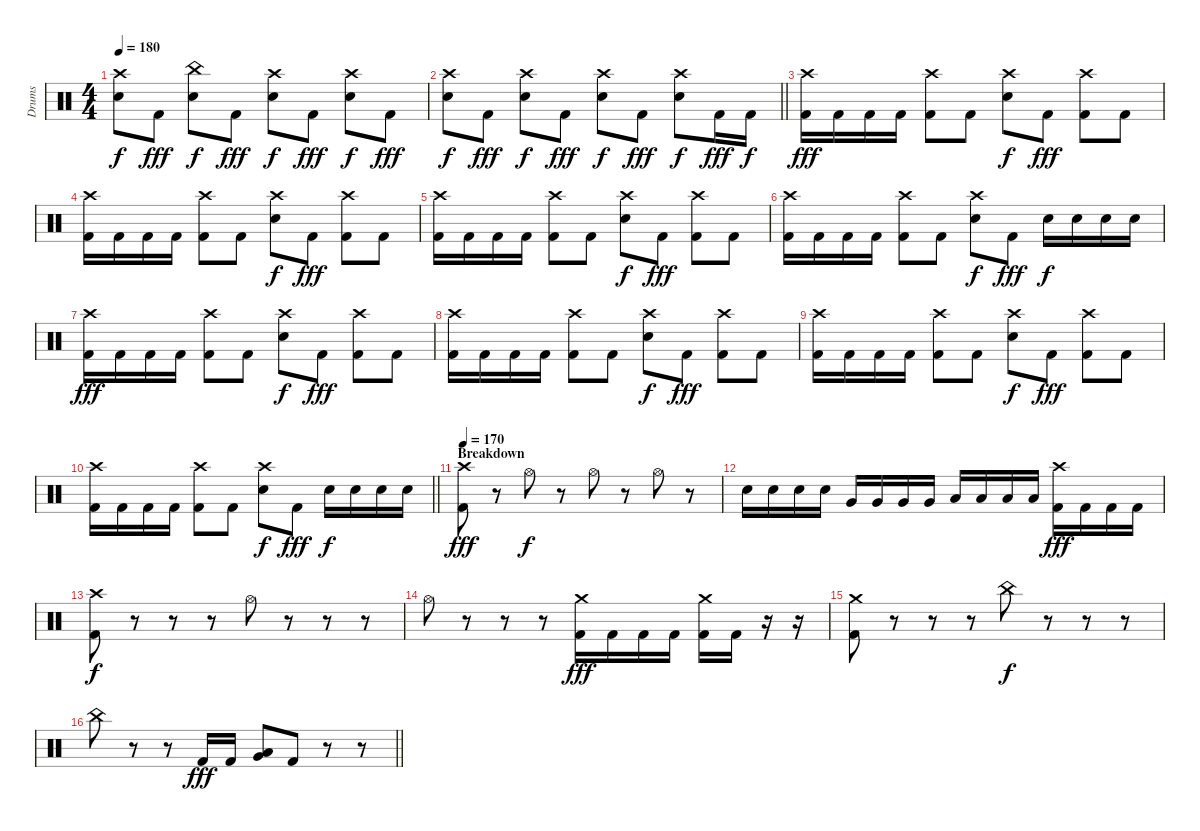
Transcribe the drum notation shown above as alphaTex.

\track ("Drums" "Drums") {instrument percussion}
\staff {score}
\articulation defaults
\ts (4 4)
\tempo 180
\clef neutral
\ks c
("Crash high (hit)" "Electric Snare (hit)").8{dy f} "Kick (hit) 2".8{dy fff} ("China (hit)" "Electric Snare (hit)").8{dy f} "Kick (hit) 2".8{dy fff} ("Crash high (hit)" "Electric Snare (hit)").8{dy f} "Kick (hit) 2".8{dy fff} ("Crash high (hit)" "Electric Snare (hit)").8{dy f} "Kick (hit) 2".8{dy fff} |
\barLineRight lightlight
("Crash high (hit)" "Electric Snare (hit)").8{dy f} "Kick (hit) 2".8{dy fff} ("Crash high (hit)" "Electric Snare (hit)").8{dy f} "Kick (hit) 2".8{dy fff} ("Crash high (hit)" "Electric Snare (hit)").8{dy f} "Kick (hit) 2".8{dy fff} ("Crash high (hit)" "Electric Snare (hit)").8{dy f} "Kick (hit) 2".16{dy fff} "Kick (hit) 2".16{dy f} |
\section ("" "")
("Crash high (hit)" "Kick (hit) 2").16{dy fff} "Kick (hit) 2".16 "Kick (hit) 2".16 "Kick (hit) 2".16 ("Crash high (hit)" "Kick (hit) 2").8 "Kick (hit) 2".8 ("Crash high (hit)" "Electric Snare (hit)").8{dy f} "Kick (hit) 2".8{dy fff} ("Crash high (hit)" "Kick (hit) 2").8 "Kick (hit) 2".8 |
("Crash high (hit)" "Kick (hit) 2").16 "Kick (hit) 2".16 "Kick (hit) 2".16 "Kick (hit) 2".16 ("Crash high (hit)" "Kick (hit) 2").8 "Kick (hit) 2".8 ("Crash high (hit)" "Electric Snare (hit)").8{dy f} "Kick (hit) 2".8{dy fff} ("Crash high (hit)" "Kick (hit) 2").8 "Kick (hit) 2".8 |
("Crash high (hit)" "Kick (hit) 2").16 "Kick (hit) 2".16 "Kick (hit) 2".16 "Kick (hit) 2".16 ("Crash high (hit)" "Kick (hit) 2").8 "Kick (hit) 2".8 ("Crash high (hit)" "Electric Snare (hit)").8{dy f} "Kick (hit) 2".8{dy fff} ("Crash high (hit)" "Kick (hit) 2").8 "Kick (hit) 2".8 |
("Crash high (hit)" "Kick (hit) 2").16 "Kick (hit) 2".16 "Kick (hit) 2".16 "Kick (hit) 2".16 ("Crash high (hit)" "Kick (hit) 2").8 "Kick (hit) 2".8 ("Crash high (hit)" "Electric Snare (hit)").8{dy f} "Kick (hit) 2".8{dy fff} "Electric Snare (hit)".16{dy f} "Electric Snare (hit)".16 "Electric Snare (hit)".16 "Electric Snare (hit)".16 |
("Crash high (hit)" "Kick (hit) 2").16{dy fff} "Kick (hit) 2".16 "Kick (hit) 2".16 "Kick (hit) 2".16 ("Crash high (hit)" "Kick (hit) 2").8 "Kick (hit) 2".8 ("Crash high (hit)" "Electric Snare (hit)").8{dy f} "Kick (hit) 2".8{dy fff} ("Crash high (hit)" "Kick (hit) 2").8 "Kick (hit) 2".8 |
("Crash high (hit)" "Kick (hit) 2").16 "Kick (hit) 2".16 "Kick (hit) 2".16 "Kick (hit) 2".16 ("Crash high (hit)" "Kick (hit) 2").8 "Kick (hit) 2".8 ("Crash high (hit)" "Electric Snare (hit)").8{dy f} "Kick (hit) 2".8{dy fff} ("Crash high (hit)" "Kick (hit) 2").8 "Kick (hit) 2".8 |
("Crash high (hit)" "Kick (hit) 2").16 "Kick (hit) 2".16 "Kick (hit) 2".16 "Kick (hit) 2".16 ("Crash high (hit)" "Kick (hit) 2").8 "Kick (hit) 2".8 ("Crash high (hit)" "Electric Snare (hit)").8{dy f} "Kick (hit) 2".8{dy fff} ("Crash high (hit)" "Kick (hit) 2").8 "Kick (hit) 2".8 |
\barLineRight lightlight
("Crash high (hit)" "Kick (hit) 2").16 "Kick (hit) 2".16 "Kick (hit) 2".16 "Kick (hit) 2".16 ("Crash high (hit)" "Kick (hit) 2").8 "Kick (hit) 2".8 ("Crash high (hit)" "Electric Snare (hit)").8{dy f} "Kick (hit) 2".8{dy fff} "Electric Snare (hit)".16{dy f} "Electric Snare (hit)".16 "Electric Snare (hit)".16 "Electric Snare (hit)".16 |
\section ("" "Breakdown")
\tempo 170
("Crash high (hit)" "Kick (hit) 2").8{dy fff} r.8 "Hi-Hat (open)".8{dy f} r.8 "Hi-Hat (open)".8 r.8 "Hi-Hat (open)".8 r.8 |
"Electric Snare (hit)".16 "Electric Snare (hit)".16 "Electric Snare (hit)".16 "Electric Snare (hit)".16 "Very Low Tom (hit)".16 "Very Low Tom (hit)".16 "Very Low Tom (hit)".16 "Very Low Tom (hit)".16 "Low Floor Tom (hit)".16 "Low Floor Tom (hit)".16 "Low Floor Tom (hit)".16 "Low Floor Tom (hit)".16 ("Crash high (hit)" "Kick (hit) 2").16{dy fff} "Kick (hit) 2".16 "Kick (hit) 2".16 "Kick (hit) 2".16 |
("Crash high (hit)" "Kick (hit) 2").8{dy f} r.8 r.8 r.8 "Hi-Hat (open)".8 r.8 r.8 r.8 |
"Hi-Hat (open)".8 r.8 r.8 r.8 ("Crash medium (hit)" "Kick (hit) 2").16{dy fff} "Kick (hit) 2".16 "Kick (hit) 2".16 "Kick (hit) 2".16 ("Crash medium (hit)" "Kick (hit) 2").16 "Kick (hit) 2".16 r.16 r.16 |
("Crash medium (hit)" "Kick (hit) 2").8 r.8 r.8 r.8 "China (hit)".8{dy f} r.8 r.8 r.8 |
\barLineRight lightlight "China (hit)".8
r.8 r.8 "Kick (hit) 2".16{dy fff} "Kick (hit) 2".16 ("Very Low Tom (hit)" "Low Floor Tom (hit)").8 "Kick (hit) 2".8 r.8 r.8
